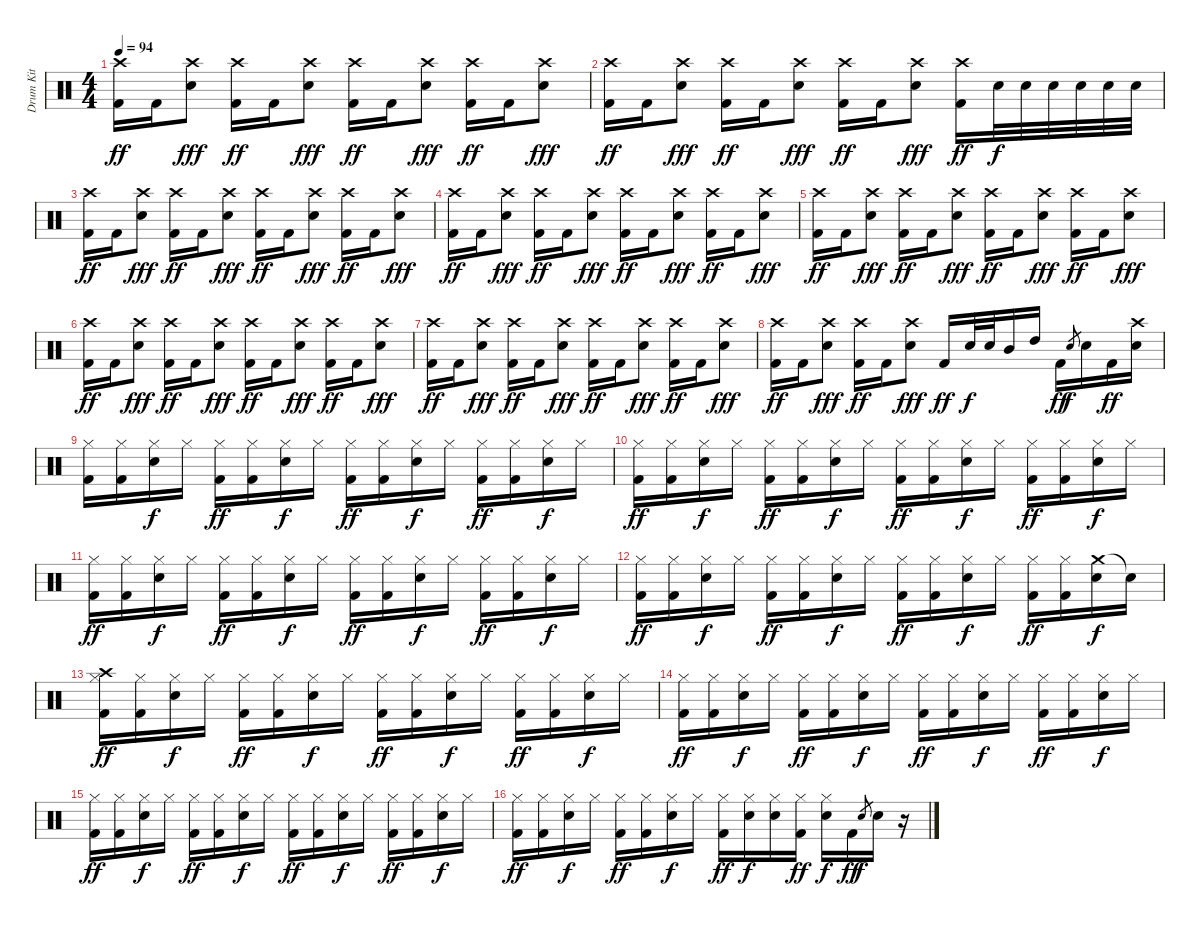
\track ("Drum Kit" "Drum Kit") {instrument percussion}
\staff {score}
\articulation defaults
\ts (4 4)
\tempo 94
\clef neutral
\ks c
("Crash high (hit)" "Kick (hit) 2").16{dy ff} "Kick (hit) 2".16 ("Crash high (hit)" "Electric Snare (hit)").8{dy fff} ("Crash high (hit)" "Kick (hit) 2").16{dy ff} "Kick (hit) 2".16 ("Crash high (hit)" "Electric Snare (hit)").8{dy fff} ("Crash high (hit)" "Kick (hit) 2").16{dy ff} "Kick (hit) 2".16 ("Crash high (hit)" "Electric Snare (hit)").8{dy fff} ("Crash high (hit)" "Kick (hit) 2").16{dy ff} "Kick (hit) 2".16 ("Crash high (hit)" "Electric Snare (hit)").8{dy fff} |
("Crash high (hit)" "Kick (hit) 2").16{dy ff} "Kick (hit) 2".16 ("Crash high (hit)" "Electric Snare (hit)").8{dy fff} ("Crash high (hit)" "Kick (hit) 2").16{dy ff} "Kick (hit) 2".16 ("Crash high (hit)" "Electric Snare (hit)").8{dy fff} ("Crash high (hit)" "Kick (hit) 2").16{dy ff} "Kick (hit) 2".16 ("Crash high (hit)" "Electric Snare (hit)").8{dy fff} ("Crash high (hit)" "Kick (hit) 2").16{dy ff} "Electric Snare (hit)".32{dy f} "Electric Snare (hit)".32 "Electric Snare (hit)".32 "Electric Snare (hit)".32 "Electric Snare (hit)".32 "Electric Snare (hit)".32 |
("Crash high (hit)" "Kick (hit) 2").16{dy ff} "Kick (hit) 2".16 ("Crash high (hit)" "Electric Snare (hit)").8{dy fff} ("Crash high (hit)" "Kick (hit) 2").16{dy ff} "Kick (hit) 2".16 ("Crash high (hit)" "Electric Snare (hit)").8{dy fff} ("Crash high (hit)" "Kick (hit) 2").16{dy ff} "Kick (hit) 2".16 ("Crash high (hit)" "Electric Snare (hit)").8{dy fff} ("Crash high (hit)" "Kick (hit) 2").16{dy ff} "Kick (hit) 2".16 ("Crash high (hit)" "Electric Snare (hit)").8{dy fff} |
("Crash high (hit)" "Kick (hit) 2").16{dy ff} "Kick (hit) 2".16 ("Crash high (hit)" "Electric Snare (hit)").8{dy fff} ("Crash high (hit)" "Kick (hit) 2").16{dy ff} "Kick (hit) 2".16 ("Crash high (hit)" "Electric Snare (hit)").8{dy fff} ("Crash high (hit)" "Kick (hit) 2").16{dy ff} "Kick (hit) 2".16 ("Crash high (hit)" "Electric Snare (hit)").8{dy fff} ("Crash high (hit)" "Kick (hit) 2").16{dy ff} "Kick (hit) 2".16 ("Crash high (hit)" "Electric Snare (hit)").8{dy fff} |
("Crash high (hit)" "Kick (hit) 2").16{dy ff} "Kick (hit) 2".16 ("Crash high (hit)" "Electric Snare (hit)").8{dy fff} ("Crash high (hit)" "Kick (hit) 2").16{dy ff} "Kick (hit) 2".16 ("Crash high (hit)" "Electric Snare (hit)").8{dy fff} ("Crash high (hit)" "Kick (hit) 2").16{dy ff} "Kick (hit) 2".16 ("Crash high (hit)" "Electric Snare (hit)").8{dy fff} ("Crash high (hit)" "Kick (hit) 2").16{dy ff} "Kick (hit) 2".16 ("Crash high (hit)" "Electric Snare (hit)").8{dy fff} |
("Crash high (hit)" "Kick (hit) 2").16{dy ff} "Kick (hit) 2".16 ("Crash high (hit)" "Electric Snare (hit)").8{dy fff} ("Crash high (hit)" "Kick (hit) 2").16{dy ff} "Kick (hit) 2".16 ("Crash high (hit)" "Electric Snare (hit)").8{dy fff} ("Crash high (hit)" "Kick (hit) 2").16{dy ff} "Kick (hit) 2".16 ("Crash high (hit)" "Electric Snare (hit)").8{dy fff} ("Crash high (hit)" "Kick (hit) 2").16{dy ff} "Kick (hit) 2".16 ("Crash high (hit)" "Electric Snare (hit)").8{dy fff} |
("Crash high (hit)" "Kick (hit) 2").16{dy ff} "Kick (hit) 2".16 ("Crash high (hit)" "Electric Snare (hit)").8{dy fff} ("Crash high (hit)" "Kick (hit) 2").16{dy ff} "Kick (hit) 2".16 ("Crash high (hit)" "Electric Snare (hit)").8{dy fff} ("Crash high (hit)" "Kick (hit) 2").16{dy ff} "Kick (hit) 2".16 ("Crash high (hit)" "Electric Snare (hit)").8{dy fff} ("Crash high (hit)" "Kick (hit) 2").16{dy ff} "Kick (hit) 2".16 ("Crash high (hit)" "Electric Snare (hit)").8{dy fff} |
("Crash high (hit)" "Kick (hit) 2").16{dy ff} "Kick (hit) 2".16 ("Crash high (hit)" "Electric Snare (hit)").8{dy fff} ("Crash high (hit)" "Kick (hit) 2").16{dy ff} "Kick (hit) 2".16 ("Crash high (hit)" "Electric Snare (hit)").8{dy fff} "Kick (hit) 2".16{dy ff} "Electric Snare (hit)".32{dy f} "Electric Snare (hit)".32 "Mid Tom (hit)".16 "High Tom (hit)".16 "Kick (hit) 2".16{dy ff} "Electric Snare (hit)".8{gr dy f} "Electric Snare (hit)".16 "Kick (hit) 2".16{dy ff} ("Crash high (hit)" "Electric Snare (hit)").16 |
("Hi-Hat (closed)" "Kick (hit) 2").16 ("Hi-Hat (closed)" "Kick (hit) 2").16 ("Hi-Hat (closed)" "Electric Snare (hit)").16{dy f} "Hi-Hat (closed)".16 ("Hi-Hat (closed)" "Kick (hit) 2").16{dy ff} ("Hi-Hat (closed)" "Kick (hit) 2").16 ("Hi-Hat (closed)" "Electric Snare (hit)").16{dy f} "Hi-Hat (closed)".16 ("Hi-Hat (closed)" "Kick (hit) 2").16{dy ff} ("Hi-Hat (closed)" "Kick (hit) 2").16 ("Hi-Hat (closed)" "Electric Snare (hit)").16{dy f} "Hi-Hat (closed)".16 ("Hi-Hat (closed)" "Kick (hit) 2").16{dy ff} ("Hi-Hat (closed)" "Kick (hit) 2").16 ("Hi-Hat (closed)" "Electric Snare (hit)").16{dy f} "Hi-Hat (closed)".16 |
("Hi-Hat (closed)" "Kick (hit) 2").16{dy ff} ("Hi-Hat (closed)" "Kick (hit) 2").16 ("Hi-Hat (closed)" "Electric Snare (hit)").16{dy f} "Hi-Hat (closed)".16 ("Hi-Hat (closed)" "Kick (hit) 2").16{dy ff} ("Hi-Hat (closed)" "Kick (hit) 2").16 ("Hi-Hat (closed)" "Electric Snare (hit)").16{dy f} "Hi-Hat (closed)".16 ("Hi-Hat (closed)" "Kick (hit) 2").16{dy ff} ("Hi-Hat (closed)" "Kick (hit) 2").16 ("Hi-Hat (closed)" "Electric Snare (hit)").16{dy f} "Hi-Hat (closed)".16 ("Hi-Hat (closed)" "Kick (hit) 2").16{dy ff} ("Hi-Hat (closed)" "Kick (hit) 2").16 ("Hi-Hat (closed)" "Electric Snare (hit)").16{dy f} "Hi-Hat (closed)".16 |
("Hi-Hat (closed)" "Kick (hit) 2").16{dy ff} ("Hi-Hat (closed)" "Kick (hit) 2").16 ("Hi-Hat (closed)" "Electric Snare (hit)").16{dy f} "Hi-Hat (closed)".16 ("Hi-Hat (closed)" "Kick (hit) 2").16{dy ff} ("Hi-Hat (closed)" "Kick (hit) 2").16 ("Hi-Hat (closed)" "Electric Snare (hit)").16{dy f} "Hi-Hat (closed)".16 ("Hi-Hat (closed)" "Kick (hit) 2").16{dy ff} ("Hi-Hat (closed)" "Kick (hit) 2").16 ("Hi-Hat (closed)" "Electric Snare (hit)").16{dy f} "Hi-Hat (closed)".16 ("Hi-Hat (closed)" "Kick (hit) 2").16{dy ff} ("Hi-Hat (closed)" "Kick (hit) 2").16 ("Hi-Hat (closed)" "Electric Snare (hit)").16{dy f} "Hi-Hat (closed)".16 |
("Hi-Hat (closed)" "Kick (hit) 2").16{dy ff} ("Hi-Hat (closed)" "Kick (hit) 2").16 ("Hi-Hat (closed)" "Electric Snare (hit)").16{dy f} "Hi-Hat (closed)".16 ("Hi-Hat (closed)" "Kick (hit) 2").16{dy ff} ("Hi-Hat (closed)" "Kick (hit) 2").16 ("Hi-Hat (closed)" "Electric Snare (hit)").16{dy f} "Hi-Hat (closed)".16 ("Hi-Hat (closed)" "Kick (hit) 2").16{dy ff} ("Hi-Hat (closed)" "Kick (hit) 2").16 ("Hi-Hat (closed)" "Electric Snare (hit)").16{dy f} "Hi-Hat (closed)".16 ("Hi-Hat (closed)" "Kick (hit) 2").16{dy ff} ("Hi-Hat (closed)" "Kick (hit) 2").16 ("Crash medium (hit)" "Electric Snare (hit)").16{dy f} "Snare (hit)"{t}.16 |
("Crash high (hit)" "Hi-Hat (closed)" "Kick (hit) 2").16{dy ff} ("Hi-Hat (closed)" "Kick (hit) 2").16 ("Hi-Hat (closed)" "Electric Snare (hit)").16{dy f} "Hi-Hat (closed)".16 ("Hi-Hat (closed)" "Kick (hit) 2").16{dy ff} ("Hi-Hat (closed)" "Kick (hit) 2").16 ("Hi-Hat (closed)" "Electric Snare (hit)").16{dy f} "Hi-Hat (closed)".16 ("Hi-Hat (closed)" "Kick (hit) 2").16{dy ff} ("Hi-Hat (closed)" "Kick (hit) 2").16 ("Hi-Hat (closed)" "Electric Snare (hit)").16{dy f} "Hi-Hat (closed)".16 ("Hi-Hat (closed)" "Kick (hit) 2").16{dy ff} ("Hi-Hat (closed)" "Kick (hit) 2").16 ("Hi-Hat (closed)" "Electric Snare (hit)").16{dy f} "Hi-Hat (closed)".16 |
("Hi-Hat (closed)" "Kick (hit) 2").16{dy ff} ("Hi-Hat (closed)" "Kick (hit) 2").16 ("Hi-Hat (closed)" "Electric Snare (hit)").16{dy f} "Hi-Hat (closed)".16 ("Hi-Hat (closed)" "Kick (hit) 2").16{dy ff} ("Hi-Hat (closed)" "Kick (hit) 2").16 ("Hi-Hat (closed)" "Electric Snare (hit)").16{dy f} "Hi-Hat (closed)".16 ("Hi-Hat (closed)" "Kick (hit) 2").16{dy ff} ("Hi-Hat (closed)" "Kick (hit) 2").16 ("Hi-Hat (closed)" "Electric Snare (hit)").16{dy f} "Hi-Hat (closed)".16 ("Hi-Hat (closed)" "Kick (hit) 2").16{dy ff} ("Hi-Hat (closed)" "Kick (hit) 2").16 ("Hi-Hat (closed)" "Electric Snare (hit)").16{dy f} "Hi-Hat (closed)".16 |
("Hi-Hat (closed)" "Kick (hit) 2").16{dy ff} ("Hi-Hat (closed)" "Kick (hit) 2").16 ("Hi-Hat (closed)" "Electric Snare (hit)").16{dy f} "Hi-Hat (closed)".16 ("Hi-Hat (closed)" "Kick (hit) 2").16{dy ff} ("Hi-Hat (closed)" "Kick (hit) 2").16 ("Hi-Hat (closed)" "Electric Snare (hit)").16{dy f} "Hi-Hat (closed)".16 ("Hi-Hat (closed)" "Kick (hit) 2").16{dy ff} ("Hi-Hat (closed)" "Kick (hit) 2").16 ("Hi-Hat (closed)" "Electric Snare (hit)").16{dy f} "Hi-Hat (closed)".16 ("Hi-Hat (closed)" "Kick (hit) 2").16{dy ff} ("Hi-Hat (closed)" "Kick (hit) 2").16 ("Hi-Hat (closed)" "Electric Snare (hit)").16{dy f} "Hi-Hat (closed)".16 |
("Hi-Hat (closed)" "Kick (hit) 2").16{dy ff} ("Hi-Hat (closed)" "Kick (hit) 2").16 ("Hi-Hat (closed)" "Electric Snare (hit)").16{dy f} "Hi-Hat (closed)".16 ("Hi-Hat (closed)" "Kick (hit) 2").16{dy ff} ("Hi-Hat (closed)" "Kick (hit) 2").16 ("Hi-Hat (closed)" "Electric Snare (hit)").16{dy f} "Hi-Hat (closed)".16 ("Hi-Hat (closed)" "Kick (hit) 2").16{dy ff} ("Hi-Hat (closed)" "Electric Snare (hit)").16{dy f} ("Hi-Hat (closed)" "Electric Snare (hit)").16 ("Hi-Hat (closed)" "Kick (hit) 2").16{dy ff} ("Hi-Hat (closed)" "Electric Snare (hit)").16{dy f} "Kick (hit) 2".16{dy ff} "Electric Snare (hit)".8{gr dy f} "Electric Snare (hit)".16 r.16
